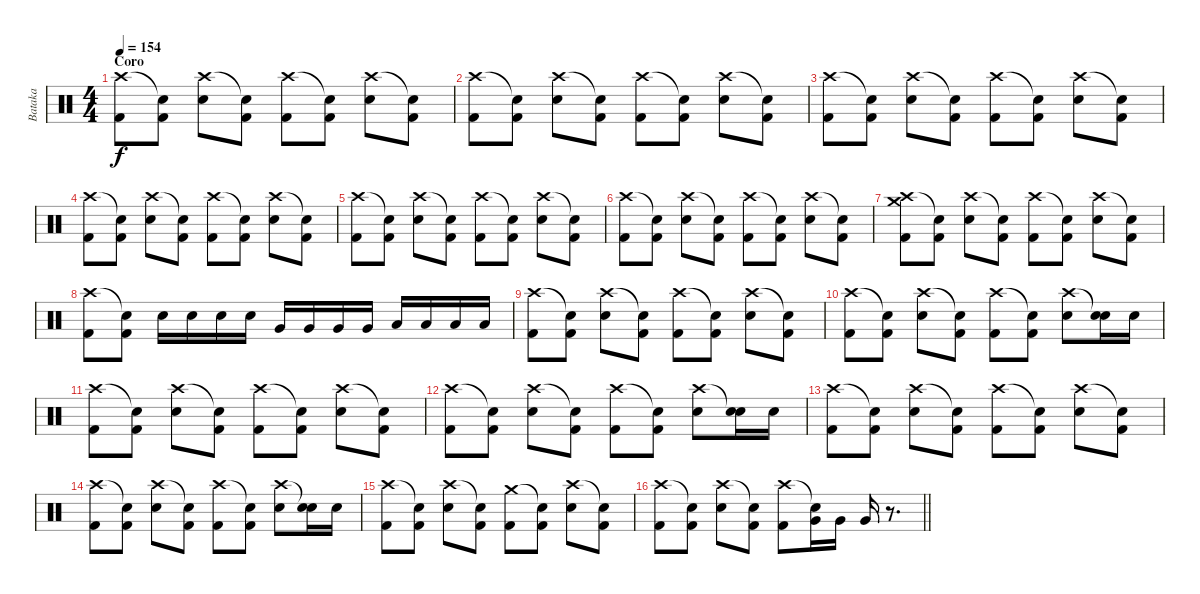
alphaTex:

\track ("Bataka" "Bataka") {instrument percussion}
\staff {score}
\articulation defaults
\ts (4 4)
\section ("" "Coro")
\tempo 154
\clef neutral
\ks c
("Crash high (hit)" "Kick (hit) 2").8{dy f} ("Snare (hit)"{t} "Kick (hit) 2").8 ("Crash high (hit)" "Electric Snare (hit)").8 ("Snare (hit)"{t} "Kick (hit) 2").8 ("Crash high (hit)" "Kick (hit) 2").8 ("Snare (hit)"{t} "Kick (hit) 2").8 ("Crash high (hit)" "Electric Snare (hit)").8 ("Snare (hit)"{t} "Kick (hit) 2").8 |
("Crash high (hit)" "Kick (hit) 2").8 ("Snare (hit)"{t} "Kick (hit) 2").8 ("Crash high (hit)" "Electric Snare (hit)").8 ("Snare (hit)"{t} "Kick (hit) 2").8 ("Crash high (hit)" "Kick (hit) 2").8 ("Snare (hit)"{t} "Kick (hit) 2").8 ("Crash high (hit)" "Electric Snare (hit)").8 ("Snare (hit)"{t} "Kick (hit) 2").8 |
("Crash high (hit)" "Kick (hit) 2").8 ("Snare (hit)"{t} "Kick (hit) 2").8 ("Crash high (hit)" "Electric Snare (hit)").8 ("Snare (hit)"{t} "Kick (hit) 2").8 ("Crash high (hit)" "Kick (hit) 2").8 ("Snare (hit)"{t} "Kick (hit) 2").8 ("Crash high (hit)" "Electric Snare (hit)").8 ("Snare (hit)"{t} "Kick (hit) 2").8 |
("Crash high (hit)" "Kick (hit) 2").8 ("Snare (hit)"{t} "Kick (hit) 2").8 ("Crash high (hit)" "Electric Snare (hit)").8 ("Snare (hit)"{t} "Kick (hit) 2").8 ("Crash high (hit)" "Kick (hit) 2").8 ("Snare (hit)"{t} "Kick (hit) 2").8 ("Crash high (hit)" "Electric Snare (hit)").8 ("Snare (hit)"{t} "Kick (hit) 2").8 |
("Crash high (hit)" "Kick (hit) 2").8 ("Snare (hit)"{t} "Kick (hit) 2").8 ("Crash high (hit)" "Electric Snare (hit)").8 ("Snare (hit)"{t} "Kick (hit) 2").8 ("Crash high (hit)" "Kick (hit) 2").8 ("Snare (hit)"{t} "Kick (hit) 2").8 ("Crash high (hit)" "Electric Snare (hit)").8 ("Snare (hit)"{t} "Kick (hit) 2").8 |
("Crash high (hit)" "Kick (hit) 2").8 ("Snare (hit)"{t} "Kick (hit) 2").8 ("Crash high (hit)" "Electric Snare (hit)").8 ("Snare (hit)"{t} "Kick (hit) 2").8 ("Crash high (hit)" "Kick (hit) 2").8 ("Snare (hit)"{t} "Kick (hit) 2").8 ("Crash high (hit)" "Electric Snare (hit)").8 ("Snare (hit)"{t} "Kick (hit) 2").8 |
("Crash high (hit)" "Crash medium (hit)" "Kick (hit) 2").8 ("Snare (hit)"{t} "Kick (hit) 2").8 ("Crash high (hit)" "Electric Snare (hit)").8 ("Snare (hit)"{t} "Kick (hit) 2").8 ("Crash high (hit)" "Kick (hit) 2").8 ("Snare (hit)"{t} "Kick (hit) 2").8 ("Crash high (hit)" "Electric Snare (hit)").8 ("Snare (hit)"{t} "Kick (hit) 2").8 |
("Crash high (hit)" "Kick (hit) 2").8 ("Snare (hit)"{t} "Kick (hit) 2").8 "Electric Snare (hit)".16 "Electric Snare (hit)".16 "Electric Snare (hit)".16 "Electric Snare (hit)".16 "Very Low Tom (hit)".16 "Very Low Tom (hit)".16 "Very Low Tom (hit)".16 "Very Low Tom (hit)".16 "Low Floor Tom (hit)".16 "Low Floor Tom (hit)".16 "Low Floor Tom (hit)".16 "Low Floor Tom (hit)".16 |
("Crash high (hit)" "Kick (hit) 2").8 ("Snare (hit)"{t} "Kick (hit) 2").8 ("Crash high (hit)" "Electric Snare (hit)").8 ("Snare (hit)"{t} "Kick (hit) 2").8 ("Crash high (hit)" "Kick (hit) 2").8 ("Snare (hit)"{t} "Kick (hit) 2").8 ("Crash high (hit)" "Electric Snare (hit)").8 ("Snare (hit)"{t} "Kick (hit) 2").8 |
("Crash high (hit)" "Kick (hit) 2").8 ("Snare (hit)"{t} "Kick (hit) 2").8 ("Crash high (hit)" "Electric Snare (hit)").8 ("Snare (hit)"{t} "Kick (hit) 2").8 ("Crash high (hit)" "Kick (hit) 2").8 ("Snare (hit)"{t} "Kick (hit) 2").8 ("Crash high (hit)" "Electric Snare (hit)").8 ("Snare (hit)"{t} "Electric Snare (hit)").16 "Electric Snare (hit)".16 |
("Crash high (hit)" "Kick (hit) 2").8 ("Snare (hit)"{t} "Kick (hit) 2").8 ("Crash high (hit)" "Electric Snare (hit)").8 ("Snare (hit)"{t} "Kick (hit) 2").8 ("Crash high (hit)" "Kick (hit) 2").8 ("Snare (hit)"{t} "Kick (hit) 2").8 ("Crash high (hit)" "Electric Snare (hit)").8 ("Snare (hit)"{t} "Kick (hit) 2").8 |
("Crash high (hit)" "Kick (hit) 2").8 ("Snare (hit)"{t} "Kick (hit) 2").8 ("Crash high (hit)" "Electric Snare (hit)").8 ("Snare (hit)"{t} "Kick (hit) 2").8 ("Crash high (hit)" "Kick (hit) 2").8 ("Snare (hit)"{t} "Kick (hit) 2").8 ("Crash high (hit)" "Electric Snare (hit)").8 ("Snare (hit)"{t} "Electric Snare (hit)").16 "Electric Snare (hit)".16 |
("Crash high (hit)" "Kick (hit) 2").8 ("Snare (hit)"{t} "Kick (hit) 2").8 ("Crash high (hit)" "Electric Snare (hit)").8 ("Snare (hit)"{t} "Kick (hit) 2").8 ("Crash high (hit)" "Kick (hit) 2").8 ("Snare (hit)"{t} "Kick (hit) 2").8 ("Crash high (hit)" "Electric Snare (hit)").8 ("Snare (hit)"{t} "Kick (hit) 2").8 |
("Crash high (hit)" "Kick (hit) 2").8 ("Snare (hit)"{t} "Kick (hit) 2").8 ("Crash high (hit)" "Electric Snare (hit)").8 ("Snare (hit)"{t} "Kick (hit) 2").8 ("Crash high (hit)" "Kick (hit) 2").8 ("Snare (hit)"{t} "Kick (hit) 2").8 ("Crash high (hit)" "Electric Snare (hit)").8 ("Snare (hit)"{t} "Electric Snare (hit)").16 "Electric Snare (hit)".16 |
("Crash high (hit)" "Kick (hit) 2").8 ("Snare (hit)"{t} "Kick (hit) 2").8 ("Crash high (hit)" "Electric Snare (hit)").8 ("Snare (hit)"{t} "Kick (hit) 2").8 ("Crash medium (hit)" "Kick (hit) 2").8 ("Snare (hit)"{t} "Kick (hit) 2").8 ("Crash high (hit)" "Electric Snare (hit)").8 ("Snare (hit)"{t} "Kick (hit) 2").8 |
\barLineRight lightlight
("Crash high (hit)" "Kick (hit) 2").8 ("Snare (hit)"{t} "Kick (hit) 2").8 ("Crash high (hit)" "Electric Snare (hit)").8 ("Snare (hit)"{t} "Kick (hit) 2").8 ("Crash high (hit)" "Kick (hit) 2").8 ("Snare (hit)"{t} "Very Low Tom (hit)").16 "Very Low Tom (hit)".16 "Very Low Tom (hit)".16 r.8{d}
